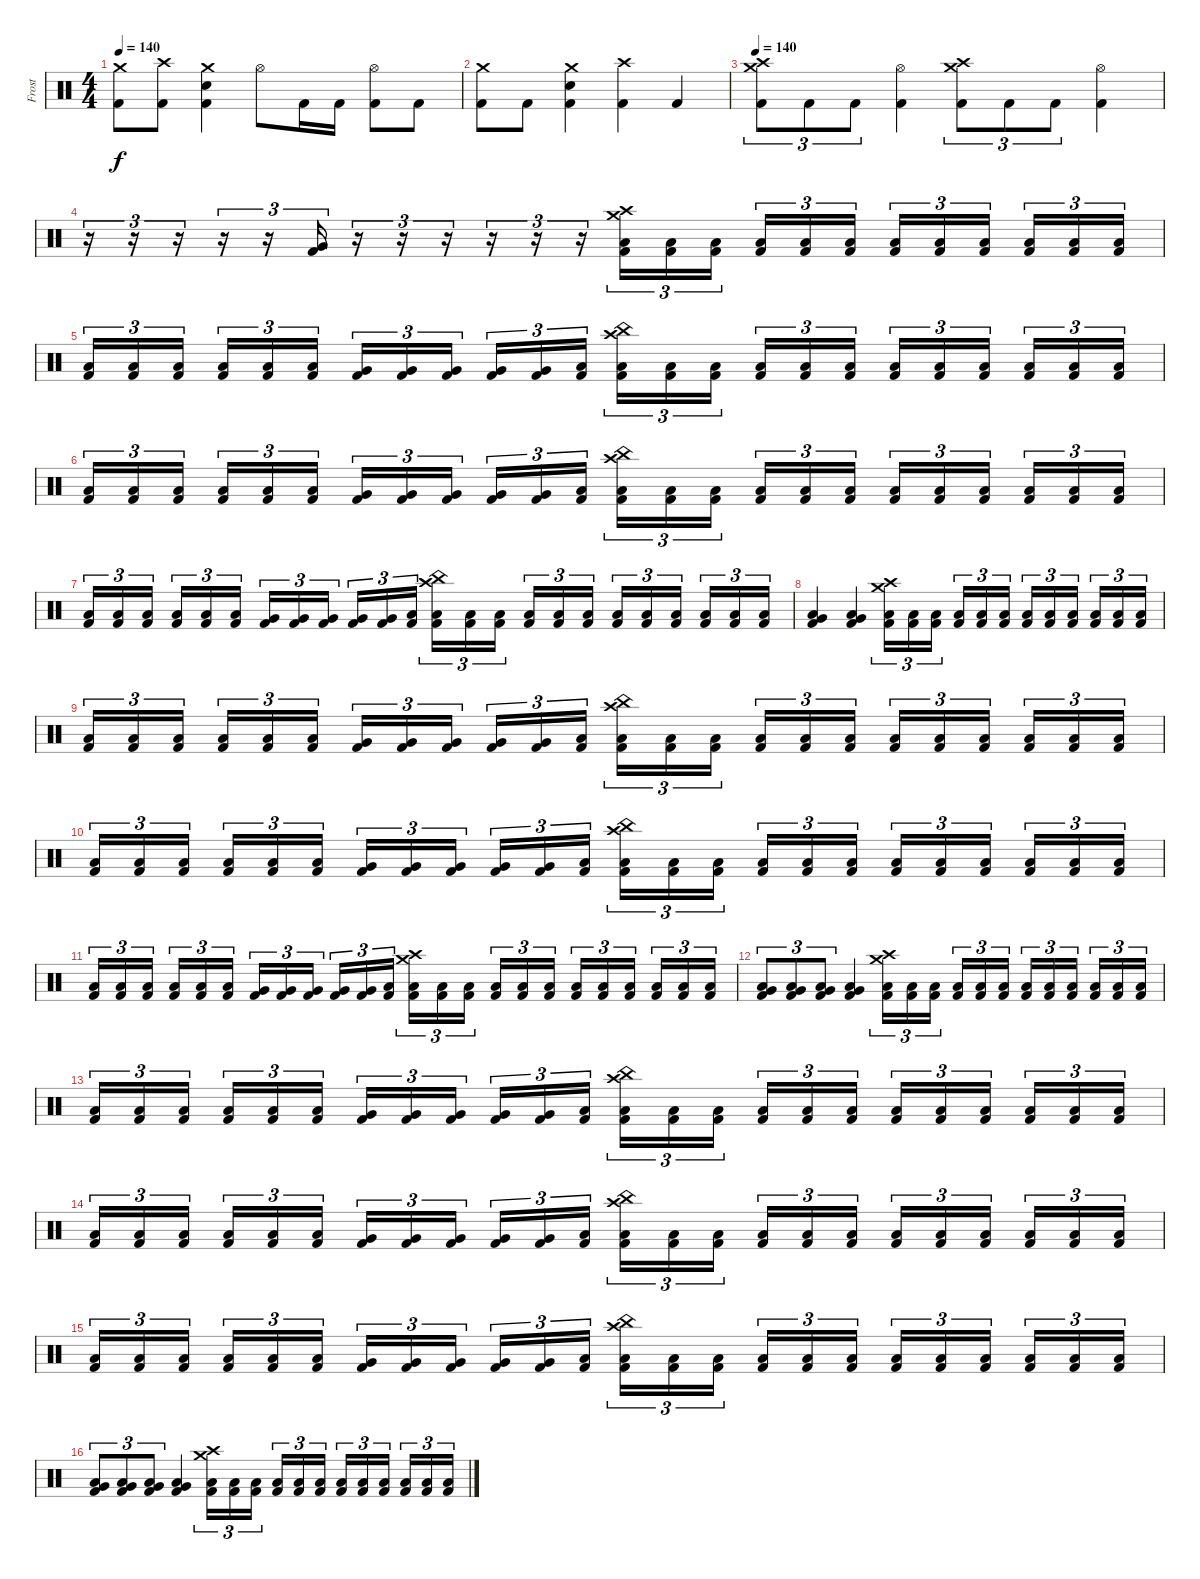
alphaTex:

\track ("Frost" "Frost") {instrument percussion}
\staff {score}
\articulation defaults
\ts (4 4)
\tempo 140
\clef neutral
\ks c
("Crash medium (hit)" "Kick (hit) 2").8{dy f} ("Crash high (hit)" "Kick (hit) 2").8 ("Crash medium (hit)" "Snare (hit) 2" "Kick (hit) 2").4 "Hi-Hat (open)".8 "Kick (hit) 2".16 "Kick (hit) 2".16 ("Hi-Hat (open)" "Kick (hit) 2").8 "Kick (hit) 2".8 |
("Crash medium (hit)" "Kick (hit) 2").8 "Kick (hit) 2".8 ("Crash medium (hit)" "Snare (hit) 2" "Kick (hit) 2").4 ("Crash high (hit)" "Kick (hit) 2").4 "Kick (hit) 2".4 |
\tempo 140
("Crash high (hit)" "Crash medium (hit)" "Kick (hit) 2").8{tu (3 2)} "Kick (hit) 2".8{tu (3 2)} "Kick (hit) 2".8{tu (3 2)} ("Hi-Hat (open)" "Kick (hit) 2").4 ("Crash high (hit)" "Crash medium (hit)" "Kick (hit) 2").8{tu (3 2)} "Kick (hit) 2".8{tu (3 2)} "Kick (hit) 2".8{tu (3 2)} ("Hi-Hat (open)" "Kick (hit) 2").4 |
r.16{tu (3 2)} r.16{tu (3 2)} r.16{tu (3 2)} r.16{tu (3 2)} r.16{tu (3 2)} ("Very Low Tom (hit)" "Kick (hit) 2").16{tu (3 2)} r.16{tu (3 2)} r.16{tu (3 2)} r.16{tu (3 2)} r.16{tu (3 2)} r.16{tu (3 2)} r.16{tu (3 2)} ("Crash high (hit)" "Crash medium (hit)" "Low Tom (hit)" "Kick (hit) 2").16{tu (3 2)} ("Low Tom (hit)" "Kick (hit) 2").16{tu (3 2)} ("Low Tom (hit)" "Kick (hit) 2").16{tu (3 2) beam splitsecondary} ("Low Tom (hit)" "Kick (hit) 2").16{tu (3 2)} ("Low Tom (hit)" "Kick (hit) 2").16{tu (3 2)} ("Low Tom (hit)" "Kick (hit) 2").16{tu (3 2)} ("Low Tom (hit)" "Kick (hit) 2").16{tu (3 2)} ("Low Tom (hit)" "Kick (hit) 2").16{tu (3 2)} ("Low Tom (hit)" "Kick (hit) 2").16{tu (3 2) beam splitsecondary} ("Low Tom (hit)" "Kick (hit) 2").16{tu (3 2)} ("Low Tom (hit)" "Kick (hit) 2").16{tu (3 2)} ("Low Tom (hit)" "Kick (hit) 2").16{tu (3 2)} |
("Low Floor Tom (hit)" "Kick (hit) 2").16{tu (3 2)} ("Low Floor Tom (hit)" "Kick (hit) 2").16{tu (3 2)} ("Low Floor Tom (hit)" "Kick (hit) 2").16{tu (3 2) beam splitsecondary} ("Low Floor Tom (hit)" "Kick (hit) 2").16{tu (3 2)} ("Low Floor Tom (hit)" "Kick (hit) 2").16{tu (3 2)} ("Low Floor Tom (hit)" "Kick (hit) 2").16{tu (3 2)} ("Very Low Tom (hit)" "Kick (hit) 2").16{tu (3 2)} ("Very Low Tom (hit)" "Kick (hit) 2").16{tu (3 2)} ("Very Low Tom (hit)" "Kick (hit) 2").16{tu (3 2) beam splitsecondary} ("Very Low Tom (hit)" "Kick (hit) 2").16{tu (3 2)} ("Very Low Tom (hit)" "Kick (hit) 2").16{tu (3 2)} ("Low Floor Tom (hit)" "Kick (hit) 2").16{tu (3 2)} ("China (hit)" "Crash high (hit)" "Low Floor Tom (hit)" "Kick (hit) 2").16{tu (3 2)} ("Low Floor Tom (hit)" "Kick (hit) 2").16{tu (3 2)} ("Low Floor Tom (hit)" "Kick (hit) 2").16{tu (3 2) beam splitsecondary} ("Low Floor Tom (hit)" "Kick (hit) 2").16{tu (3 2)} ("Low Floor Tom (hit)" "Kick (hit) 2").16{tu (3 2)} ("Low Tom (hit)" "Kick (hit) 2").16{tu (3 2)} ("Low Tom (hit)" "Kick (hit) 2").16{tu (3 2)} ("Low Tom (hit)" "Kick (hit) 2").16{tu (3 2)} ("Low Tom (hit)" "Kick (hit) 2").16{tu (3 2) beam splitsecondary} ("Low Tom (hit)" "Kick (hit) 2").16{tu (3 2)} ("Low Tom (hit)" "Kick (hit) 2").16{tu (3 2)} ("Low Tom (hit)" "Kick (hit) 2").16{tu (3 2)} |
("Low Floor Tom (hit)" "Kick (hit) 2").16{tu (3 2)} ("Low Floor Tom (hit)" "Kick (hit) 2").16{tu (3 2)} ("Low Floor Tom (hit)" "Kick (hit) 2").16{tu (3 2) beam splitsecondary} ("Low Floor Tom (hit)" "Kick (hit) 2").16{tu (3 2)} ("Low Floor Tom (hit)" "Kick (hit) 2").16{tu (3 2)} ("Low Floor Tom (hit)" "Kick (hit) 2").16{tu (3 2)} ("Very Low Tom (hit)" "Kick (hit) 2").16{tu (3 2)} ("Very Low Tom (hit)" "Kick (hit) 2").16{tu (3 2)} ("Very Low Tom (hit)" "Kick (hit) 2").16{tu (3 2) beam splitsecondary} ("Very Low Tom (hit)" "Kick (hit) 2").16{tu (3 2)} ("Very Low Tom (hit)" "Kick (hit) 2").16{tu (3 2)} ("Low Floor Tom (hit)" "Kick (hit) 2").16{tu (3 2)} ("China (hit)" "Crash high (hit)" "Low Floor Tom (hit)" "Kick (hit) 2").16{tu (3 2)} ("Low Floor Tom (hit)" "Kick (hit) 2").16{tu (3 2)} ("Low Floor Tom (hit)" "Kick (hit) 2").16{tu (3 2) beam splitsecondary} ("Low Floor Tom (hit)" "Kick (hit) 2").16{tu (3 2)} ("Low Floor Tom (hit)" "Kick (hit) 2").16{tu (3 2)} ("Low Tom (hit)" "Kick (hit) 2").16{tu (3 2)} ("Low Tom (hit)" "Kick (hit) 2").16{tu (3 2)} ("Low Tom (hit)" "Kick (hit) 2").16{tu (3 2)} ("Low Tom (hit)" "Kick (hit) 2").16{tu (3 2) beam splitsecondary} ("Low Tom (hit)" "Kick (hit) 2").16{tu (3 2)} ("Low Tom (hit)" "Kick (hit) 2").16{tu (3 2)} ("Low Tom (hit)" "Kick (hit) 2").16{tu (3 2)} |
("Low Floor Tom (hit)" "Kick (hit) 2").16{tu (3 2)} ("Low Floor Tom (hit)" "Kick (hit) 2").16{tu (3 2)} ("Low Floor Tom (hit)" "Kick (hit) 2").16{tu (3 2) beam splitsecondary} ("Low Floor Tom (hit)" "Kick (hit) 2").16{tu (3 2)} ("Low Floor Tom (hit)" "Kick (hit) 2").16{tu (3 2)} ("Low Floor Tom (hit)" "Kick (hit) 2").16{tu (3 2)} ("Very Low Tom (hit)" "Kick (hit) 2").16{tu (3 2)} ("Very Low Tom (hit)" "Kick (hit) 2").16{tu (3 2)} ("Very Low Tom (hit)" "Kick (hit) 2").16{tu (3 2) beam splitsecondary} ("Very Low Tom (hit)" "Kick (hit) 2").16{tu (3 2)} ("Very Low Tom (hit)" "Kick (hit) 2").16{tu (3 2)} ("Low Floor Tom (hit)" "Kick (hit) 2").16{tu (3 2)} ("China (hit)" "Crash high (hit)" "Low Floor Tom (hit)" "Kick (hit) 2").16{tu (3 2)} ("Low Floor Tom (hit)" "Kick (hit) 2").16{tu (3 2)} ("Low Floor Tom (hit)" "Kick (hit) 2").16{tu (3 2) beam splitsecondary} ("Low Floor Tom (hit)" "Kick (hit) 2").16{tu (3 2)} ("Low Floor Tom (hit)" "Kick (hit) 2").16{tu (3 2)} ("Low Tom (hit)" "Kick (hit) 2").16{tu (3 2)} ("Low Tom (hit)" "Kick (hit) 2").16{tu (3 2)} ("Low Tom (hit)" "Kick (hit) 2").16{tu (3 2)} ("Low Tom (hit)" "Kick (hit) 2").16{tu (3 2) beam splitsecondary} ("Low Tom (hit)" "Kick (hit) 2").16{tu (3 2)} ("Low Tom (hit)" "Kick (hit) 2").16{tu (3 2)} ("Low Tom (hit)" "Kick (hit) 2").16{tu (3 2)} |
("Very Low Tom (hit)" "Low Tom (hit)" "Kick (hit) 2").4 ("Very Low Tom (hit)" "Low Tom (hit)" "Kick (hit) 2").4 ("Crash medium (hit)" "Crash high (hit)" "Low Tom (hit)" "Kick (hit) 2").16{tu (3 2)} ("Low Tom (hit)" "Kick (hit) 2").16{tu (3 2)} ("Low Tom (hit)" "Kick (hit) 2").16{tu (3 2) beam splitsecondary} ("Low Tom (hit)" "Kick (hit) 2").16{tu (3 2)} ("Low Tom (hit)" "Kick (hit) 2").16{tu (3 2)} ("Low Tom (hit)" "Kick (hit) 2").16{tu (3 2)} ("Low Tom (hit)" "Kick (hit) 2").16{tu (3 2)} ("Low Tom (hit)" "Kick (hit) 2").16{tu (3 2)} ("Low Tom (hit)" "Kick (hit) 2").16{tu (3 2) beam splitsecondary} ("Low Tom (hit)" "Kick (hit) 2").16{tu (3 2)} ("Low Tom (hit)" "Kick (hit) 2").16{tu (3 2)} ("Low Tom (hit)" "Kick (hit) 2").16{tu (3 2)} |
("Low Floor Tom (hit)" "Kick (hit) 2").16{tu (3 2)} ("Low Floor Tom (hit)" "Kick (hit) 2").16{tu (3 2)} ("Low Floor Tom (hit)" "Kick (hit) 2").16{tu (3 2) beam splitsecondary} ("Low Floor Tom (hit)" "Kick (hit) 2").16{tu (3 2)} ("Low Floor Tom (hit)" "Kick (hit) 2").16{tu (3 2)} ("Low Floor Tom (hit)" "Kick (hit) 2").16{tu (3 2)} ("Very Low Tom (hit)" "Kick (hit) 2").16{tu (3 2)} ("Very Low Tom (hit)" "Kick (hit) 2").16{tu (3 2)} ("Very Low Tom (hit)" "Kick (hit) 2").16{tu (3 2) beam splitsecondary} ("Very Low Tom (hit)" "Kick (hit) 2").16{tu (3 2)} ("Very Low Tom (hit)" "Kick (hit) 2").16{tu (3 2)} ("Low Floor Tom (hit)" "Kick (hit) 2").16{tu (3 2)} ("China (hit)" "Crash high (hit)" "Low Floor Tom (hit)" "Kick (hit) 2").16{tu (3 2)} ("Low Floor Tom (hit)" "Kick (hit) 2").16{tu (3 2)} ("Low Floor Tom (hit)" "Kick (hit) 2").16{tu (3 2) beam splitsecondary} ("Low Floor Tom (hit)" "Kick (hit) 2").16{tu (3 2)} ("Low Floor Tom (hit)" "Kick (hit) 2").16{tu (3 2)} ("Low Tom (hit)" "Kick (hit) 2").16{tu (3 2)} ("Low Tom (hit)" "Kick (hit) 2").16{tu (3 2)} ("Low Tom (hit)" "Kick (hit) 2").16{tu (3 2)} ("Low Tom (hit)" "Kick (hit) 2").16{tu (3 2) beam splitsecondary} ("Low Tom (hit)" "Kick (hit) 2").16{tu (3 2)} ("Low Tom (hit)" "Kick (hit) 2").16{tu (3 2)} ("Low Tom (hit)" "Kick (hit) 2").16{tu (3 2)} |
("Low Floor Tom (hit)" "Kick (hit) 2").16{tu (3 2)} ("Low Floor Tom (hit)" "Kick (hit) 2").16{tu (3 2)} ("Low Floor Tom (hit)" "Kick (hit) 2").16{tu (3 2) beam splitsecondary} ("Low Floor Tom (hit)" "Kick (hit) 2").16{tu (3 2)} ("Low Floor Tom (hit)" "Kick (hit) 2").16{tu (3 2)} ("Low Floor Tom (hit)" "Kick (hit) 2").16{tu (3 2)} ("Very Low Tom (hit)" "Kick (hit) 2").16{tu (3 2)} ("Very Low Tom (hit)" "Kick (hit) 2").16{tu (3 2)} ("Very Low Tom (hit)" "Kick (hit) 2").16{tu (3 2) beam splitsecondary} ("Very Low Tom (hit)" "Kick (hit) 2").16{tu (3 2)} ("Very Low Tom (hit)" "Kick (hit) 2").16{tu (3 2)} ("Low Floor Tom (hit)" "Kick (hit) 2").16{tu (3 2)} ("China (hit)" "Crash high (hit)" "Low Floor Tom (hit)" "Kick (hit) 2").16{tu (3 2)} ("Low Floor Tom (hit)" "Kick (hit) 2").16{tu (3 2)} ("Low Floor Tom (hit)" "Kick (hit) 2").16{tu (3 2) beam splitsecondary} ("Low Floor Tom (hit)" "Kick (hit) 2").16{tu (3 2)} ("Low Floor Tom (hit)" "Kick (hit) 2").16{tu (3 2)} ("Low Tom (hit)" "Kick (hit) 2").16{tu (3 2)} ("Low Tom (hit)" "Kick (hit) 2").16{tu (3 2)} ("Low Tom (hit)" "Kick (hit) 2").16{tu (3 2)} ("Low Tom (hit)" "Kick (hit) 2").16{tu (3 2) beam splitsecondary} ("Low Tom (hit)" "Kick (hit) 2").16{tu (3 2)} ("Low Tom (hit)" "Kick (hit) 2").16{tu (3 2)} ("Low Tom (hit)" "Kick (hit) 2").16{tu (3 2)} |
("Low Floor Tom (hit)" "Kick (hit) 2").16{tu (3 2)} ("Low Floor Tom (hit)" "Kick (hit) 2").16{tu (3 2)} ("Low Floor Tom (hit)" "Kick (hit) 2").16{tu (3 2) beam splitsecondary} ("Low Floor Tom (hit)" "Kick (hit) 2").16{tu (3 2)} ("Low Floor Tom (hit)" "Kick (hit) 2").16{tu (3 2)} ("Low Floor Tom (hit)" "Kick (hit) 2").16{tu (3 2)} ("Very Low Tom (hit)" "Kick (hit) 2").16{tu (3 2)} ("Very Low Tom (hit)" "Kick (hit) 2").16{tu (3 2)} ("Very Low Tom (hit)" "Kick (hit) 2").16{tu (3 2) beam splitsecondary} ("Very Low Tom (hit)" "Kick (hit) 2").16{tu (3 2)} ("Very Low Tom (hit)" "Kick (hit) 2").16{tu (3 2)} ("Low Floor Tom (hit)" "Kick (hit) 2").16{tu (3 2)} ("Crash high (hit)" "Crash medium (hit)" "Low Floor Tom (hit)" "Kick (hit) 2").16{tu (3 2)} ("Low Floor Tom (hit)" "Kick (hit) 2").16{tu (3 2)} ("Low Floor Tom (hit)" "Kick (hit) 2").16{tu (3 2) beam splitsecondary} ("Low Floor Tom (hit)" "Kick (hit) 2").16{tu (3 2)} ("Low Floor Tom (hit)" "Kick (hit) 2").16{tu (3 2)} ("Low Tom (hit)" "Kick (hit) 2").16{tu (3 2)} ("Low Tom (hit)" "Kick (hit) 2").16{tu (3 2)} ("Low Tom (hit)" "Kick (hit) 2").16{tu (3 2)} ("Low Tom (hit)" "Kick (hit) 2").16{tu (3 2) beam splitsecondary} ("Low Tom (hit)" "Kick (hit) 2").16{tu (3 2)} ("Low Tom (hit)" "Kick (hit) 2").16{tu (3 2)} ("Low Tom (hit)" "Kick (hit) 2").16{tu (3 2)} |
("Very Low Tom (hit)" "Low Tom (hit)" "Kick (hit) 2").8{tu (3 2)} ("Very Low Tom (hit)" "Low Tom (hit)" "Kick (hit) 2").8{tu (3 2)} ("Very Low Tom (hit)" "Low Tom (hit)" "Kick (hit) 2").8{tu (3 2)} ("Very Low Tom (hit)" "Low Tom (hit)" "Kick (hit) 2").4 ("Crash medium (hit)" "Crash high (hit)" "Low Tom (hit)" "Kick (hit) 2").16{tu (3 2)} ("Low Tom (hit)" "Kick (hit) 2").16{tu (3 2)} ("Low Tom (hit)" "Kick (hit) 2").16{tu (3 2) beam splitsecondary} ("Low Tom (hit)" "Kick (hit) 2").16{tu (3 2)} ("Low Tom (hit)" "Kick (hit) 2").16{tu (3 2)} ("Low Tom (hit)" "Kick (hit) 2").16{tu (3 2)} ("Low Tom (hit)" "Kick (hit) 2").16{tu (3 2)} ("Low Tom (hit)" "Kick (hit) 2").16{tu (3 2)} ("Low Tom (hit)" "Kick (hit) 2").16{tu (3 2) beam splitsecondary} ("Low Tom (hit)" "Kick (hit) 2").16{tu (3 2)} ("Low Tom (hit)" "Kick (hit) 2").16{tu (3 2)} ("Low Tom (hit)" "Kick (hit) 2").16{tu (3 2)} |
("Low Floor Tom (hit)" "Kick (hit) 2").16{tu (3 2)} ("Low Floor Tom (hit)" "Kick (hit) 2").16{tu (3 2)} ("Low Floor Tom (hit)" "Kick (hit) 2").16{tu (3 2) beam splitsecondary} ("Low Floor Tom (hit)" "Kick (hit) 2").16{tu (3 2)} ("Low Floor Tom (hit)" "Kick (hit) 2").16{tu (3 2)} ("Low Floor Tom (hit)" "Kick (hit) 2").16{tu (3 2)} ("Very Low Tom (hit)" "Kick (hit) 2").16{tu (3 2)} ("Very Low Tom (hit)" "Kick (hit) 2").16{tu (3 2)} ("Very Low Tom (hit)" "Kick (hit) 2").16{tu (3 2) beam splitsecondary} ("Very Low Tom (hit)" "Kick (hit) 2").16{tu (3 2)} ("Very Low Tom (hit)" "Kick (hit) 2").16{tu (3 2)} ("Low Floor Tom (hit)" "Kick (hit) 2").16{tu (3 2)} ("China (hit)" "Crash high (hit)" "Low Floor Tom (hit)" "Kick (hit) 2").16{tu (3 2)} ("Low Floor Tom (hit)" "Kick (hit) 2").16{tu (3 2)} ("Low Floor Tom (hit)" "Kick (hit) 2").16{tu (3 2) beam splitsecondary} ("Low Floor Tom (hit)" "Kick (hit) 2").16{tu (3 2)} ("Low Floor Tom (hit)" "Kick (hit) 2").16{tu (3 2)} ("Low Tom (hit)" "Kick (hit) 2").16{tu (3 2)} ("Low Tom (hit)" "Kick (hit) 2").16{tu (3 2)} ("Low Tom (hit)" "Kick (hit) 2").16{tu (3 2)} ("Low Tom (hit)" "Kick (hit) 2").16{tu (3 2) beam splitsecondary} ("Low Tom (hit)" "Kick (hit) 2").16{tu (3 2)} ("Low Tom (hit)" "Kick (hit) 2").16{tu (3 2)} ("Low Tom (hit)" "Kick (hit) 2").16{tu (3 2)} |
("Low Floor Tom (hit)" "Kick (hit) 2").16{tu (3 2)} ("Low Floor Tom (hit)" "Kick (hit) 2").16{tu (3 2)} ("Low Floor Tom (hit)" "Kick (hit) 2").16{tu (3 2) beam splitsecondary} ("Low Floor Tom (hit)" "Kick (hit) 2").16{tu (3 2)} ("Low Floor Tom (hit)" "Kick (hit) 2").16{tu (3 2)} ("Low Floor Tom (hit)" "Kick (hit) 2").16{tu (3 2)} ("Very Low Tom (hit)" "Kick (hit) 2").16{tu (3 2)} ("Very Low Tom (hit)" "Kick (hit) 2").16{tu (3 2)} ("Very Low Tom (hit)" "Kick (hit) 2").16{tu (3 2) beam splitsecondary} ("Very Low Tom (hit)" "Kick (hit) 2").16{tu (3 2)} ("Very Low Tom (hit)" "Kick (hit) 2").16{tu (3 2)} ("Low Floor Tom (hit)" "Kick (hit) 2").16{tu (3 2)} ("China (hit)" "Crash high (hit)" "Low Floor Tom (hit)" "Kick (hit) 2").16{tu (3 2)} ("Low Floor Tom (hit)" "Kick (hit) 2").16{tu (3 2)} ("Low Floor Tom (hit)" "Kick (hit) 2").16{tu (3 2) beam splitsecondary} ("Low Floor Tom (hit)" "Kick (hit) 2").16{tu (3 2)} ("Low Floor Tom (hit)" "Kick (hit) 2").16{tu (3 2)} ("Low Tom (hit)" "Kick (hit) 2").16{tu (3 2)} ("Low Tom (hit)" "Kick (hit) 2").16{tu (3 2)} ("Low Tom (hit)" "Kick (hit) 2").16{tu (3 2)} ("Low Tom (hit)" "Kick (hit) 2").16{tu (3 2) beam splitsecondary} ("Low Tom (hit)" "Kick (hit) 2").16{tu (3 2)} ("Low Tom (hit)" "Kick (hit) 2").16{tu (3 2)} ("Low Tom (hit)" "Kick (hit) 2").16{tu (3 2)} |
("Low Floor Tom (hit)" "Kick (hit) 2").16{tu (3 2)} ("Low Floor Tom (hit)" "Kick (hit) 2").16{tu (3 2)} ("Low Floor Tom (hit)" "Kick (hit) 2").16{tu (3 2) beam splitsecondary} ("Low Floor Tom (hit)" "Kick (hit) 2").16{tu (3 2)} ("Low Floor Tom (hit)" "Kick (hit) 2").16{tu (3 2)} ("Low Floor Tom (hit)" "Kick (hit) 2").16{tu (3 2)} ("Very Low Tom (hit)" "Kick (hit) 2").16{tu (3 2)} ("Very Low Tom (hit)" "Kick (hit) 2").16{tu (3 2)} ("Very Low Tom (hit)" "Kick (hit) 2").16{tu (3 2) beam splitsecondary} ("Very Low Tom (hit)" "Kick (hit) 2").16{tu (3 2)} ("Very Low Tom (hit)" "Kick (hit) 2").16{tu (3 2)} ("Low Floor Tom (hit)" "Kick (hit) 2").16{tu (3 2)} ("China (hit)" "Crash high (hit)" "Low Floor Tom (hit)" "Kick (hit) 2").16{tu (3 2)} ("Low Floor Tom (hit)" "Kick (hit) 2").16{tu (3 2)} ("Low Floor Tom (hit)" "Kick (hit) 2").16{tu (3 2) beam splitsecondary} ("Low Floor Tom (hit)" "Kick (hit) 2").16{tu (3 2)} ("Low Floor Tom (hit)" "Kick (hit) 2").16{tu (3 2)} ("Low Tom (hit)" "Kick (hit) 2").16{tu (3 2)} ("Low Tom (hit)" "Kick (hit) 2").16{tu (3 2)} ("Low Tom (hit)" "Kick (hit) 2").16{tu (3 2)} ("Low Tom (hit)" "Kick (hit) 2").16{tu (3 2) beam splitsecondary} ("Low Tom (hit)" "Kick (hit) 2").16{tu (3 2)} ("Low Tom (hit)" "Kick (hit) 2").16{tu (3 2)} ("Low Tom (hit)" "Kick (hit) 2").16{tu (3 2)} |
("Very Low Tom (hit)" "Low Tom (hit)" "Kick (hit) 2").8{tu (3 2)} ("Very Low Tom (hit)" "Low Tom (hit)" "Kick (hit) 2").8{tu (3 2)} ("Very Low Tom (hit)" "Low Tom (hit)" "Kick (hit) 2").8{tu (3 2)} ("Very Low Tom (hit)" "Low Tom (hit)" "Kick (hit) 2").4 ("Crash medium (hit)" "Crash high (hit)" "Low Tom (hit)" "Kick (hit) 2").16{tu (3 2)} ("Low Tom (hit)" "Kick (hit) 2").16{tu (3 2)} ("Low Tom (hit)" "Kick (hit) 2").16{tu (3 2) beam splitsecondary} ("Low Tom (hit)" "Kick (hit) 2").16{tu (3 2)} ("Low Tom (hit)" "Kick (hit) 2").16{tu (3 2)} ("Low Tom (hit)" "Kick (hit) 2").16{tu (3 2)} ("Low Tom (hit)" "Kick (hit) 2").16{tu (3 2)} ("Low Tom (hit)" "Kick (hit) 2").16{tu (3 2)} ("Low Tom (hit)" "Kick (hit) 2").16{tu (3 2) beam splitsecondary} ("Low Tom (hit)" "Kick (hit) 2").16{tu (3 2)} ("Low Tom (hit)" "Kick (hit) 2").16{tu (3 2)} ("Low Tom (hit)" "Kick (hit) 2").16{tu (3 2)}
